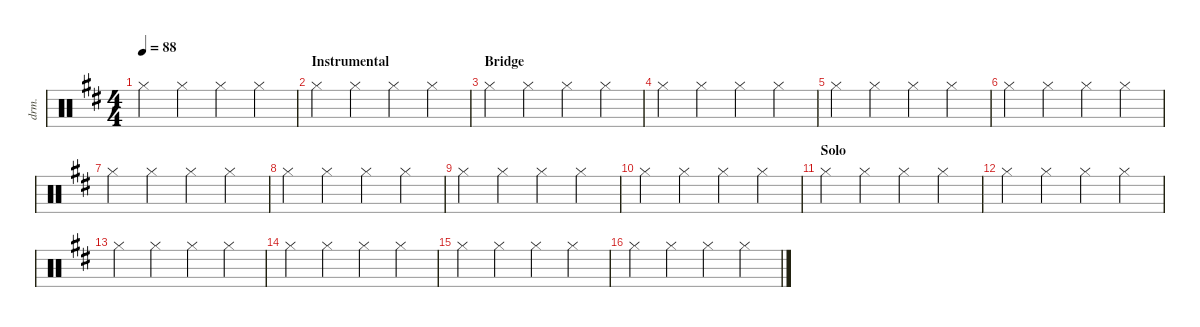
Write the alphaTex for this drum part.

\defaultSystemsLayout 4
\hideDynamics
\bracketExtendMode nobrackets
\otherSystemsTrackNameOrientation horizontal
\track ("Drumkit" "drm.") {instrument percussion}
\staff {score}
\articulation defaults
\ts (4 4)
\tempo 88
\clef neutral
\ks d "Hi-Hat (closed)"{acc forcenatural}.4{dy mf} "Hi-Hat (closed)"{acc forcenatural}.4 "Hi-Hat (closed)"{acc forcenatural}.4 "Hi-Hat (closed)"{acc forcenatural}.4
|
\section ("" "Instrumental")
"Hi-Hat (closed)"{acc forcenatural}.4 "Hi-Hat (closed)"{acc forcenatural}.4 "Hi-Hat (closed)"{acc forcenatural}.4 "Hi-Hat (closed)"{acc forcenatural}.4 |
\section ("" "Bridge")
"Hi-Hat (closed)"{acc forcenatural}.4 "Hi-Hat (closed)"{acc forcenatural}.4 "Hi-Hat (closed)"{acc forcenatural}.4 "Hi-Hat (closed)"{acc forcenatural}.4 |
"Hi-Hat (closed)"{acc forcenatural}.4 "Hi-Hat (closed)"{acc forcenatural}.4 "Hi-Hat (closed)"{acc forcenatural}.4 "Hi-Hat (closed)"{acc forcenatural}.4 |
"Hi-Hat (closed)"{acc forcenatural}.4 "Hi-Hat (closed)"{acc forcenatural}.4 "Hi-Hat (closed)"{acc forcenatural}.4 "Hi-Hat (closed)"{acc forcenatural}.4 |
"Hi-Hat (closed)"{acc forcenatural}.4 "Hi-Hat (closed)"{acc forcenatural}.4 "Hi-Hat (closed)"{acc forcenatural}.4 "Hi-Hat (closed)"{acc forcenatural}.4 |
"Hi-Hat (closed)"{acc forcenatural}.4 "Hi-Hat (closed)"{acc forcenatural}.4 "Hi-Hat (closed)"{acc forcenatural}.4 "Hi-Hat (closed)"{acc forcenatural}.4 |
"Hi-Hat (closed)"{acc forcenatural}.4 "Hi-Hat (closed)"{acc forcenatural}.4 "Hi-Hat (closed)"{acc forcenatural}.4 "Hi-Hat (closed)"{acc forcenatural}.4 |
"Hi-Hat (closed)"{acc forcenatural}.4 "Hi-Hat (closed)"{acc forcenatural}.4 "Hi-Hat (closed)"{acc forcenatural}.4 "Hi-Hat (closed)"{acc forcenatural}.4 |
"Hi-Hat (closed)"{acc forcenatural}.4 "Hi-Hat (closed)"{acc forcenatural}.4 "Hi-Hat (closed)"{acc forcenatural}.4 "Hi-Hat (closed)"{acc forcenatural}.4 |
\section ("" "Solo")
"Hi-Hat (closed)"{acc forcenatural}.4 "Hi-Hat (closed)"{acc forcenatural}.4 "Hi-Hat (closed)"{acc forcenatural}.4 "Hi-Hat (closed)"{acc forcenatural}.4 |
"Hi-Hat (closed)"{acc forcenatural}.4 "Hi-Hat (closed)"{acc forcenatural}.4 "Hi-Hat (closed)"{acc forcenatural}.4 "Hi-Hat (closed)"{acc forcenatural}.4 |
"Hi-Hat (closed)"{acc forcenatural}.4 "Hi-Hat (closed)"{acc forcenatural}.4 "Hi-Hat (closed)"{acc forcenatural}.4 "Hi-Hat (closed)"{acc forcenatural}.4 |
"Hi-Hat (closed)"{acc forcenatural}.4 "Hi-Hat (closed)"{acc forcenatural}.4 "Hi-Hat (closed)"{acc forcenatural}.4 "Hi-Hat (closed)"{acc forcenatural}.4 |
"Hi-Hat (closed)"{acc forcenatural}.4 "Hi-Hat (closed)"{acc forcenatural}.4 "Hi-Hat (closed)"{acc forcenatural}.4 "Hi-Hat (closed)"{acc forcenatural}.4 |
"Hi-Hat (closed)"{acc forcenatural}.4 "Hi-Hat (closed)"{acc forcenatural}.4 "Hi-Hat (closed)"{acc forcenatural}.4 "Hi-Hat (closed)"{acc forcenatural}.4
